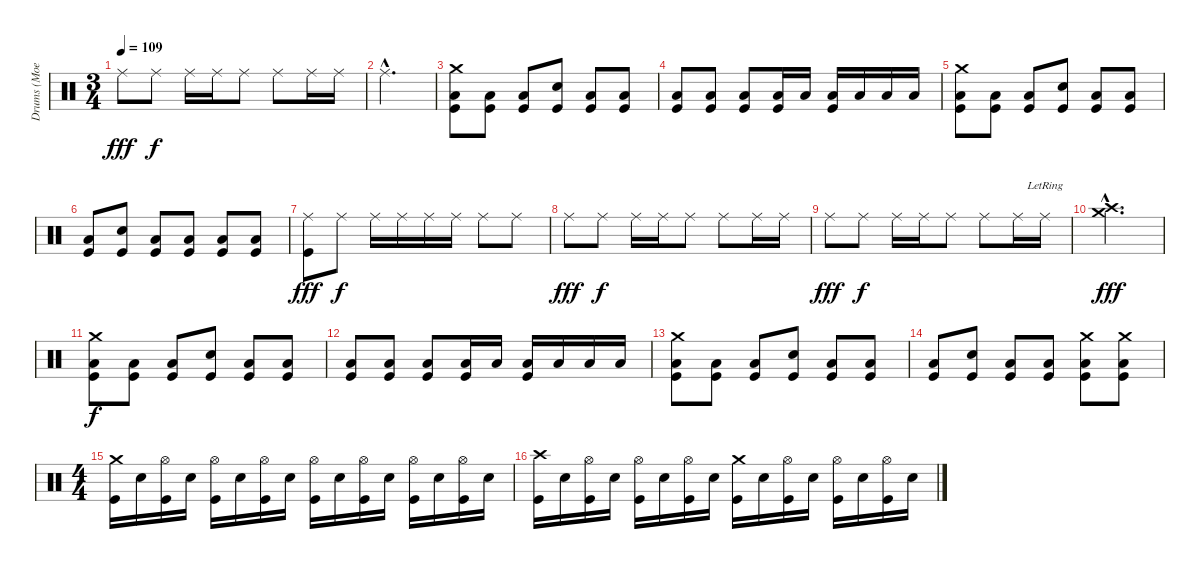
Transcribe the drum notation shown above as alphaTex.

\track ("Drums (Moe)" "Drums (Moe") {instrument percussion}
\staff {score}
\articulation defaults
\ts (3 4)
\tempo 109
\clef neutral
\ks c "Ride (middle)".8{dy fff} "Ride (middle)".8{dy f} "Ride (middle)".16 "Ride (middle)".16 "Ride (middle)".8 "Ride (middle)".8 "Ride (middle)".16 "Ride (middle)".16
|
"Ride (middle)"{hac}.2{d} |
("Kick (hit)" "Low Floor Tom (hit)" "Crash medium (hit)").8 ("Kick (hit)" "Low Floor Tom (hit)").8 ("Kick (hit)" "Low Floor Tom (hit)").8 ("Kick (hit)" "Snare (hit) 2").8 ("Kick (hit)" "Low Floor Tom (hit)").8 ("Kick (hit)" "Low Floor Tom (hit)").8 |
("Kick (hit)" "Low Floor Tom (hit)").8 ("Kick (hit)" "Low Floor Tom (hit)").8 ("Kick (hit)" "Low Floor Tom (hit)").8 ("Kick (hit)" "Low Tom (hit)").16 "Low Tom (hit)".16 ("Kick (hit)" "Low Tom (hit)").16 "Low Tom (hit)".16 "Low Floor Tom (hit)".16 "Low Floor Tom (hit)".16 |
("Kick (hit)" "Low Floor Tom (hit)" "Crash medium (hit)").8 ("Kick (hit)" "Low Floor Tom (hit)").8 ("Kick (hit)" "Low Floor Tom (hit)").8 ("Kick (hit)" "Snare (hit) 2").8 ("Kick (hit)" "Low Floor Tom (hit)").8 ("Kick (hit)" "Low Floor Tom (hit)").8 |
("Kick (hit)" "Low Floor Tom (hit)").8 ("Kick (hit)" "Electric Snare (hit)").8 ("Kick (hit)" "Low Floor Tom (hit)").8 ("Kick (hit)" "Low Tom (hit)").8 ("Kick (hit)" "Low Floor Tom (hit)").8 ("Kick (hit)" "Low Floor Tom (hit)").8 |
("Kick (hit)" "Ride (middle)").8{dy fff} "Ride (middle)".8{dy f} "Ride (middle)".16 "Ride (middle)".16 "Ride (middle)".16 "Ride (middle)".16 "Ride (middle)".8 "Ride (middle)".8 |
"Ride (middle)".8{dy fff} "Ride (middle)".8{dy f} "Ride (middle)".16 "Ride (middle)".16 "Ride (middle)".8 "Ride (middle)".8 "Ride (middle)".16 "Ride (middle)".16 |
"Ride (middle)".8{dy fff} "Ride (middle)".8{dy f} "Ride (middle)".16 "Ride (middle)".16 "Ride (middle)".8 "Ride (middle)".8 "Ride (middle)".16 "Ride (middle)"{lr}.16 |
("Crash medium (hit)"{hac} "Crash high (hit)"{hac}).2{d dy fff} |
("Kick (hit)" "Low Floor Tom (hit)" "Crash medium (hit)").8{dy f} ("Kick (hit)" "Low Floor Tom (hit)").8 ("Kick (hit)" "Low Floor Tom (hit)").8 ("Kick (hit)" "Snare (hit) 2").8 ("Kick (hit)" "Low Floor Tom (hit)").8 ("Kick (hit)" "Low Floor Tom (hit)").8 |
("Kick (hit)" "Low Floor Tom (hit)").8 ("Kick (hit)" "Low Floor Tom (hit)").8 ("Kick (hit)" "Low Floor Tom (hit)").8 ("Kick (hit)" "Low Tom (hit)").16 "Low Tom (hit)".16 ("Kick (hit)" "Low Tom (hit)").16 "Low Tom (hit)".16 "Low Floor Tom (hit)".16 "Low Floor Tom (hit)".16 |
("Kick (hit)" "Low Floor Tom (hit)" "Crash medium (hit)").8 ("Kick (hit)" "Low Floor Tom (hit)").8 ("Kick (hit)" "Low Floor Tom (hit)").8 ("Kick (hit)" "Snare (hit) 2").8 ("Kick (hit)" "Low Floor Tom (hit)").8 ("Kick (hit)" "Low Floor Tom (hit)").8 |
("Kick (hit)" "Low Floor Tom (hit)").8 ("Kick (hit)" "Electric Snare (hit)").8 ("Kick (hit)" "Low Floor Tom (hit)").8 ("Kick (hit)" "Low Tom (hit)").8 ("Kick (hit)" "Low Floor Tom (hit)" "Crash medium (hit)").8 ("Kick (hit)" "Low Floor Tom (hit)" "Crash medium (hit)").8 |
\ts (4 4)
("Kick (hit)" "Crash medium (hit)").16 "Snare (hit) 2".16 ("Kick (hit)" "Hi-Hat (open)").16 "Snare (hit) 2".16 ("Kick (hit)" "Hi-Hat (open)").16 "Snare (hit) 2".16 ("Kick (hit)" "Hi-Hat (open)").16 "Snare (hit) 2".16 ("Kick (hit)" "Hi-Hat (open)").16 "Snare (hit) 2".16 ("Kick (hit)" "Hi-Hat (open)").16 "Snare (hit) 2".16 ("Kick (hit)" "Hi-Hat (open)").16 "Snare (hit) 2".16 ("Kick (hit)" "Hi-Hat (open)").16 "Snare (hit) 2".16 |
("Kick (hit)" "Crash high (hit)").16 "Snare (hit) 2".16 ("Kick (hit)" "Hi-Hat (open)").16 "Snare (hit) 2".16 ("Kick (hit)" "Hi-Hat (open)").16 "Snare (hit) 2".16 ("Kick (hit)" "Hi-Hat (open)").16 "Snare (hit) 2".16 ("Kick (hit)" "Crash medium (hit)").16 "Snare (hit) 2".16 ("Kick (hit)" "Hi-Hat (open)").16 "Snare (hit) 2".16 ("Kick (hit)" "Hi-Hat (open)").16 "Snare (hit) 2".16 ("Kick (hit)" "Hi-Hat (open)").16 "Snare (hit) 2".16
